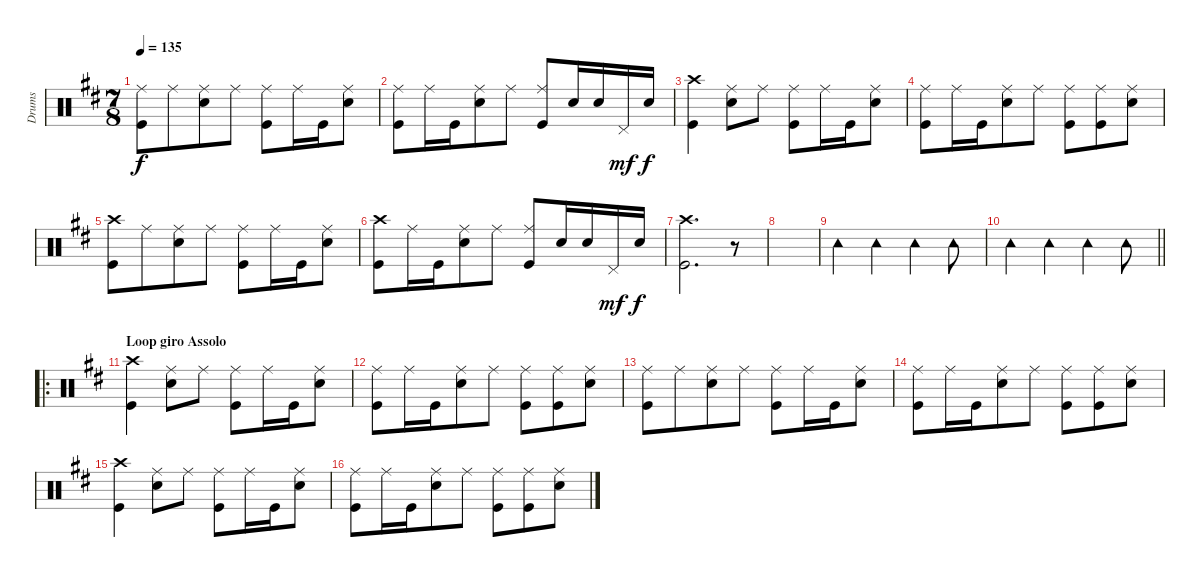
\track ("Drums" "Drums") {instrument percussion}
\staff {score}
\articulation defaults
\ts (7 8)
\tempo 135
\clef neutral
\ks d
("Ride (middle)" "Kick (hit)").8{dy f} "Ride (middle)".8 ("Ride (middle)" "Snare (hit) 2").8 "Ride (middle)".8 ("Ride (middle)" "Kick (hit)").8 "Ride (middle)".16 "Kick (hit)".16 ("Ride (middle)" "Snare (hit) 2").8 |
("Ride (middle)" "Kick (hit)").8 "Ride (middle)".16 "Kick (hit)".16 ("Ride (middle)" "Snare (hit) 2").8 "Ride (middle)".8 ("Ride (middle)" "Kick (hit)").8 "Snare (hit) 2".16 "Snare (hit) 2".16 "Pedal Hi-Hat (hit)".16{dy mf} "Snare (hit) 2".16{dy f} |
("Crash high (hit)" "Kick (hit)").4 ("Ride (middle)" "Snare (hit) 2").8 "Ride (middle)".8 ("Ride (middle)" "Kick (hit)").8 "Ride (middle)".16 "Kick (hit)".16 ("Ride (middle)" "Snare (hit) 2").8 |
("Ride (middle)" "Kick (hit)").8 "Ride (middle)".16 "Kick (hit)".16 ("Ride (middle)" "Snare (hit) 2").8 "Ride (middle)".8 ("Ride (middle)" "Kick (hit)").8 ("Ride (middle)" "Kick (hit)").8 ("Ride (middle)" "Snare (hit) 2").8 |
("Crash high (hit)" "Kick (hit)").8 "Ride (middle)".8 ("Ride (middle)" "Snare (hit) 2").8 "Ride (middle)".8 ("Ride (middle)" "Kick (hit)").8 "Ride (middle)".16 "Kick (hit)".16 ("Ride (middle)" "Snare (hit) 2").8 |
("Crash high (hit)" "Kick (hit)").8 "Ride (middle)".16 "Kick (hit)".16 ("Ride (middle)" "Snare (hit) 2").8 "Ride (middle)".8 ("Ride (middle)" "Kick (hit)").8 "Snare (hit) 2".16 "Snare (hit) 2".16 "Pedal Hi-Hat (hit)".16{dy mf} "Snare (hit) 2".16{dy f} |
("Crash high (hit)" "Kick (hit)").2{d} r.8 |
|
"Tambourine (hit)".4 "Tambourine (hit)".4 "Tambourine (hit)".4 "Tambourine (hit)".8 |
\barLineRight lightlight "Tambourine (hit)".4 "Tambourine (hit)".4 "Tambourine (hit)".4 "Tambourine (hit)".8
|
\ro
\section ("" "Loop giro Assolo")
("Crash high (hit)" "Kick (hit)").4 ("Ride (middle)" "Snare (hit) 2").8 "Ride (middle)".8 ("Ride (middle)" "Kick (hit)").8 "Ride (middle)".16 "Kick (hit)".16 ("Ride (middle)" "Snare (hit) 2").8 |
("Ride (middle)" "Kick (hit)").8 "Ride (middle)".16 "Kick (hit)".16 ("Ride (middle)" "Snare (hit) 2").8 "Ride (middle)".8 ("Ride (middle)" "Kick (hit)").8 ("Ride (middle)" "Kick (hit)").8 ("Ride (middle)" "Snare (hit) 2").8 |
("Ride (middle)" "Kick (hit)").8 "Ride (middle)".8 ("Ride (middle)" "Snare (hit) 2").8 "Ride (middle)".8 ("Ride (middle)" "Kick (hit)").8 "Ride (middle)".16 "Kick (hit)".16 ("Ride (middle)" "Snare (hit) 2").8 |
("Ride (middle)" "Kick (hit)").8 "Ride (middle)".16 "Kick (hit)".16 ("Ride (middle)" "Snare (hit) 2").8 "Ride (middle)".8 ("Ride (middle)" "Kick (hit)").8 ("Ride (middle)" "Kick (hit)").8 ("Ride (middle)" "Snare (hit) 2").8 |
("Crash high (hit)" "Kick (hit)").4 ("Ride (middle)" "Snare (hit) 2").8 "Ride (middle)".8 ("Ride (middle)" "Kick (hit)").8 "Ride (middle)".16 "Kick (hit)".16 ("Ride (middle)" "Snare (hit) 2").8 |
("Ride (middle)" "Kick (hit)").8 "Ride (middle)".16 "Kick (hit)".16 ("Ride (middle)" "Snare (hit) 2").8 "Ride (middle)".8 ("Ride (middle)" "Kick (hit)").8 ("Ride (middle)" "Kick (hit)").8 ("Ride (middle)" "Snare (hit) 2").8
